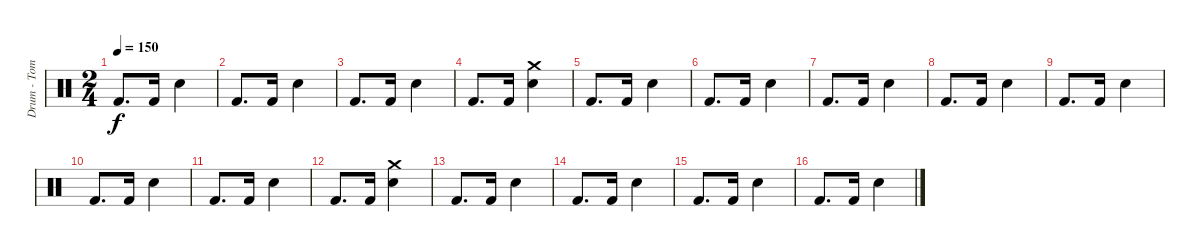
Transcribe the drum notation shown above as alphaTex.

\track ("Drum - Tom" "Drum - Tom") {instrument percussion}
\staff {score}
\articulation defaults
\ts (2 4)
\tempo 150
\clef neutral
\ks c "Kick (hit) 2".8{d dy f} "Kick (hit) 2".16 "Electric Snare (hit)".4
|
"Kick (hit) 2".8{d} "Kick (hit) 2".16 "Electric Snare (hit)".4 |
"Kick (hit) 2".8{d} "Kick (hit) 2".16 "Electric Snare (hit)".4 |
"Kick (hit) 2".8{d} "Kick (hit) 2".16 ("Crash medium (hit)" "Electric Snare (hit)").4 |
"Kick (hit) 2".8{d} "Kick (hit) 2".16 "Electric Snare (hit)".4 |
"Kick (hit) 2".8{d} "Kick (hit) 2".16 "Electric Snare (hit)".4 |
"Kick (hit) 2".8{d} "Kick (hit) 2".16 "Electric Snare (hit)".4 |
"Kick (hit) 2".8{d} "Kick (hit) 2".16 "Electric Snare (hit)".4 |
"Kick (hit) 2".8{d} "Kick (hit) 2".16 "Electric Snare (hit)".4 |
"Kick (hit) 2".8{d} "Kick (hit) 2".16 "Electric Snare (hit)".4 |
"Kick (hit) 2".8{d} "Kick (hit) 2".16 "Electric Snare (hit)".4 |
"Kick (hit) 2".8{d} "Kick (hit) 2".16 ("Crash medium (hit)" "Electric Snare (hit)").4 |
"Kick (hit) 2".8{d} "Kick (hit) 2".16 "Electric Snare (hit)".4 |
"Kick (hit) 2".8{d} "Kick (hit) 2".16 "Electric Snare (hit)".4 |
"Kick (hit) 2".8{d} "Kick (hit) 2".16 "Electric Snare (hit)".4 |
"Kick (hit) 2".8{d} "Kick (hit) 2".16 "Electric Snare (hit)".4
